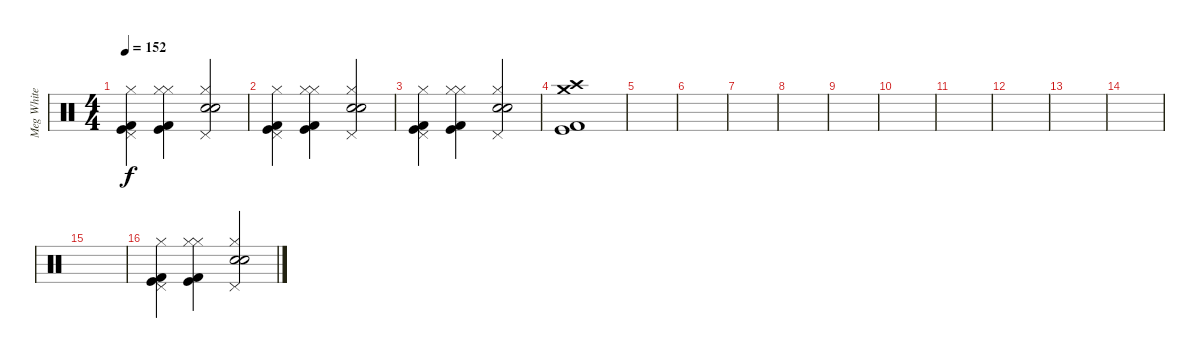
\track ("Meg White" "Meg White") {instrument percussion}
\staff {score}
\articulation defaults
\ts (4 4)
\tempo 152
\clef neutral
\ks c
("Kick (hit) 2" "Kick (hit)" "Pedal Hi-Hat (hit)" "Hi-Hat (closed)").4{dy f} ("Kick (hit) 2" "Kick (hit)" "Hi-Hat (closed)" "Hi-Hat (closed)").4 ("Pedal Hi-Hat (hit)" "Electric Snare (hit)" "Snare (hit) 2" "Hi-Hat (closed)").2 |
("Kick (hit) 2" "Kick (hit)" "Pedal Hi-Hat (hit)" "Hi-Hat (closed)").4 ("Kick (hit) 2" "Kick (hit)" "Hi-Hat (closed)" "Hi-Hat (closed)").4 ("Pedal Hi-Hat (hit)" "Electric Snare (hit)" "Snare (hit) 2" "Hi-Hat (closed)").2 |
("Kick (hit) 2" "Kick (hit)" "Pedal Hi-Hat (hit)" "Hi-Hat (closed)").4 ("Kick (hit) 2" "Kick (hit)" "Hi-Hat (closed)" "Hi-Hat (closed)").4 ("Pedal Hi-Hat (hit)" "Electric Snare (hit)" "Snare (hit) 2" "Hi-Hat (closed)").2 |
("Kick (hit) 2" "Kick (hit)" "Crash medium (hit)" "Crash high (hit)").1 |
|
|
|
|
|
|
|
|
|
|
|
("Kick (hit) 2" "Kick (hit)" "Pedal Hi-Hat (hit)" "Hi-Hat (closed)").4 ("Kick (hit) 2" "Kick (hit)" "Hi-Hat (closed)" "Hi-Hat (closed)").4 ("Pedal Hi-Hat (hit)" "Electric Snare (hit)" "Snare (hit) 2" "Hi-Hat (closed)").2
